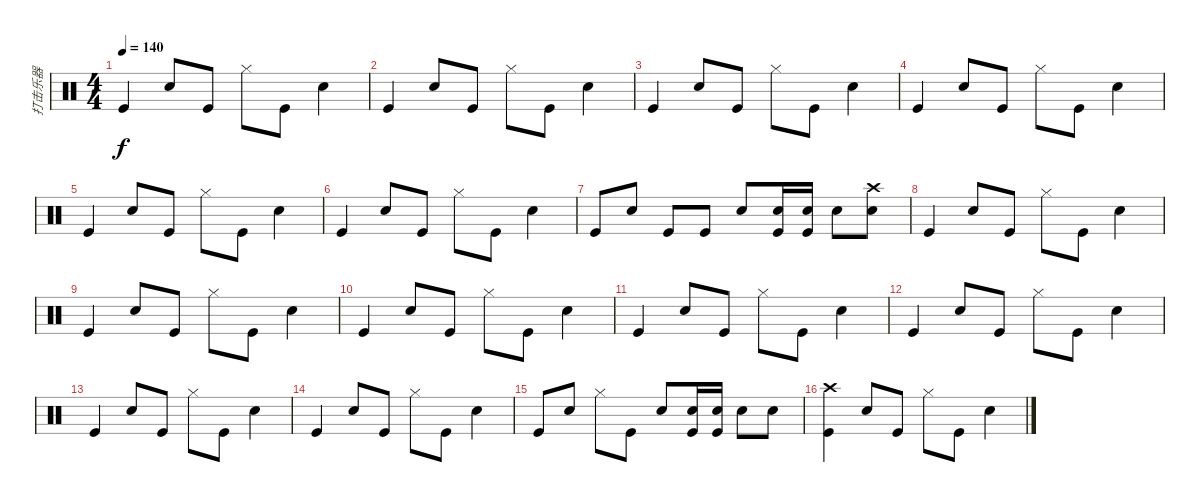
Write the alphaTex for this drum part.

\track ("打击乐器" "打击乐器") {instrument percussion}
\staff {score}
\articulation defaults
\ts (4 4)
\tempo 140
\clef neutral
\ks c "Kick (hit)".4{dy f} "Snare (hit) 2".8 "Kick (hit)".8 "Hi-Hat (closed)".8 "Kick (hit)".8 "Snare (hit) 2".4
|
"Kick (hit)".4 "Snare (hit) 2".8 "Kick (hit)".8 "Hi-Hat (closed)".8 "Kick (hit)".8 "Snare (hit) 2".4 |
"Kick (hit)".4 "Snare (hit) 2".8 "Kick (hit)".8 "Hi-Hat (closed)".8 "Kick (hit)".8 "Snare (hit) 2".4 |
"Kick (hit)".4 "Snare (hit) 2".8 "Kick (hit)".8 "Hi-Hat (closed)".8 "Kick (hit)".8 "Snare (hit) 2".4 |
"Kick (hit)".4 "Snare (hit) 2".8 "Kick (hit)".8 "Hi-Hat (closed)".8 "Kick (hit)".8 "Snare (hit) 2".4 |
"Kick (hit)".4 "Snare (hit) 2".8 "Kick (hit)".8 "Hi-Hat (closed)".8 "Kick (hit)".8 "Snare (hit) 2".4 |
"Kick (hit)".8 "Snare (hit) 2".8 "Kick (hit)".8 "Kick (hit)".8 "Snare (hit) 2".8 ("Snare (hit) 2" "Kick (hit)").16 ("Snare (hit) 2" "Kick (hit)").16 "Snare (hit) 2".8 ("Crash high (hit)" "Snare (hit) 2").8 |
"Kick (hit)".4 "Snare (hit) 2".8 "Kick (hit)".8 "Hi-Hat (closed)".8 "Kick (hit)".8 "Snare (hit) 2".4 |
"Kick (hit)".4 "Snare (hit) 2".8 "Kick (hit)".8 "Hi-Hat (closed)".8 "Kick (hit)".8 "Snare (hit) 2".4 |
"Kick (hit)".4 "Snare (hit) 2".8 "Kick (hit)".8 "Hi-Hat (closed)".8 "Kick (hit)".8 "Snare (hit) 2".4 |
"Kick (hit)".4 "Snare (hit) 2".8 "Kick (hit)".8 "Hi-Hat (closed)".8 "Kick (hit)".8 "Snare (hit) 2".4 |
"Kick (hit)".4 "Snare (hit) 2".8 "Kick (hit)".8 "Hi-Hat (closed)".8 "Kick (hit)".8 "Snare (hit) 2".4 |
"Kick (hit)".4 "Snare (hit) 2".8 "Kick (hit)".8 "Hi-Hat (closed)".8 "Kick (hit)".8 "Snare (hit) 2".4 |
"Kick (hit)".4 "Snare (hit) 2".8 "Kick (hit)".8 "Hi-Hat (closed)".8 "Kick (hit)".8 "Snare (hit) 2".4 |
"Kick (hit)".8 "Snare (hit) 2".8 "Hi-Hat (closed)".8 "Kick (hit)".8 "Snare (hit) 2".8 ("Snare (hit) 2" "Kick (hit)").16 ("Snare (hit) 2" "Kick (hit)").16 "Snare (hit) 2".8 "Snare (hit) 2".8 |
("Crash high (hit)" "Kick (hit)").4 "Snare (hit) 2".8 "Kick (hit)".8 "Hi-Hat (closed)".8 "Kick (hit)".8 "Snare (hit) 2".4
